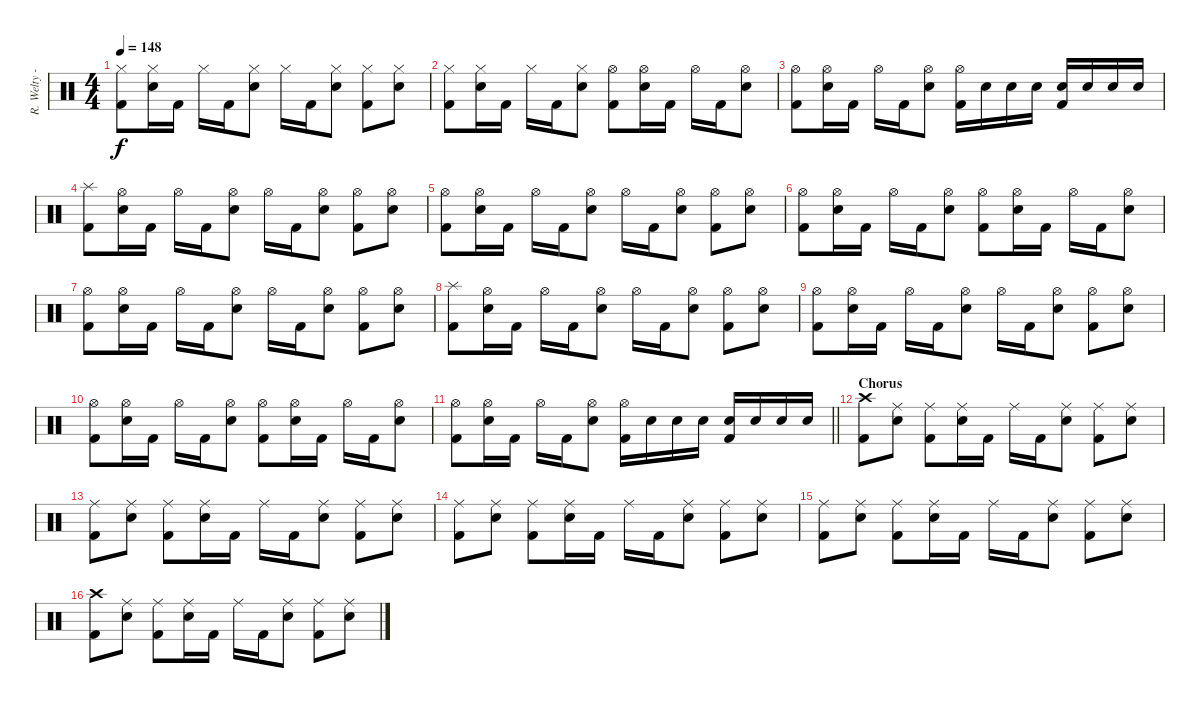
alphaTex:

\track ("R. Welty - Drums" "R. Welty -") {instrument percussion}
\staff {score}
\articulation defaults
\ts (4 4)
\tempo 148
\clef neutral
\ks c
("Hi-Hat (closed)" "Kick (hit) 2").8{dy f} ("Hi-Hat (closed)" "Snare (hit) 2").16 "Kick (hit) 2".16 "Hi-Hat (closed)".16 "Kick (hit) 2".16 ("Hi-Hat (closed)" "Snare (hit) 2").8 "Hi-Hat (closed)".16 "Kick (hit) 2".16 ("Hi-Hat (closed)" "Snare (hit) 2").8 ("Hi-Hat (closed)" "Kick (hit) 2").8 ("Hi-Hat (closed)" "Snare (hit) 2").8 |
("Hi-Hat (closed)" "Kick (hit) 2").8 ("Hi-Hat (closed)" "Snare (hit) 2").16 "Kick (hit) 2".16 "Hi-Hat (closed)".16 "Kick (hit) 2".16 ("Hi-Hat (closed)" "Snare (hit) 2").8 ("Hi-Hat (open)" "Kick (hit) 2").8 ("Hi-Hat (open)" "Snare (hit) 2").16 "Kick (hit) 2".16 "Hi-Hat (open)".16 "Kick (hit) 2".16 ("Hi-Hat (open)" "Snare (hit) 2").8 |
("Hi-Hat (open)" "Kick (hit) 2").8 ("Hi-Hat (open)" "Snare (hit) 2").16 "Kick (hit) 2".16 "Hi-Hat (open)".16 "Kick (hit) 2".16 ("Hi-Hat (open)" "Snare (hit) 2").8 ("Hi-Hat (open)" "Kick (hit) 2").16 "Snare (hit) 2".16 "Snare (hit) 2".16 "Snare (hit) 2".16 ("Snare (hit) 2" "Kick (hit) 2").16 "Snare (hit) 2".16 "Snare (hit) 2".16 "Snare (hit) 2".16 |
("Splash (hit)" "Kick (hit) 2").8 ("Hi-Hat (open)" "Snare (hit) 2").16 "Kick (hit) 2".16 "Hi-Hat (open)".16 "Kick (hit) 2".16 ("Hi-Hat (open)" "Snare (hit) 2").8 "Hi-Hat (open)".16 "Kick (hit) 2".16 ("Hi-Hat (open)" "Snare (hit) 2").8 ("Hi-Hat (open)" "Kick (hit) 2").8 ("Hi-Hat (open)" "Snare (hit) 2").8 |
("Hi-Hat (open)" "Kick (hit) 2").8 ("Hi-Hat (open)" "Snare (hit) 2").16 "Kick (hit) 2".16 "Hi-Hat (open)".16 "Kick (hit) 2".16 ("Hi-Hat (open)" "Snare (hit) 2").8 "Hi-Hat (open)".16 "Kick (hit) 2".16 ("Hi-Hat (open)" "Snare (hit) 2").8 ("Hi-Hat (open)" "Kick (hit) 2").8 ("Hi-Hat (open)" "Snare (hit) 2").8 |
("Hi-Hat (open)" "Kick (hit) 2").8 ("Hi-Hat (open)" "Snare (hit) 2").16 "Kick (hit) 2".16 "Hi-Hat (open)".16 "Kick (hit) 2".16 ("Hi-Hat (open)" "Snare (hit) 2").8 ("Hi-Hat (open)" "Kick (hit) 2").8 ("Hi-Hat (open)" "Snare (hit) 2").16 "Kick (hit) 2".16 "Hi-Hat (open)".16 "Kick (hit) 2".16 ("Hi-Hat (open)" "Snare (hit) 2").8 |
("Hi-Hat (open)" "Kick (hit) 2").8 ("Hi-Hat (open)" "Snare (hit) 2").16 "Kick (hit) 2".16 "Hi-Hat (open)".16 "Kick (hit) 2".16 ("Hi-Hat (open)" "Snare (hit) 2").8 "Hi-Hat (open)".16 "Kick (hit) 2".16 ("Hi-Hat (open)" "Snare (hit) 2").8 ("Hi-Hat (open)" "Kick (hit) 2").8 ("Hi-Hat (open)" "Snare (hit) 2").8 |
("Splash (hit)" "Kick (hit) 2").8 ("Hi-Hat (open)" "Snare (hit) 2").16 "Kick (hit) 2".16 "Hi-Hat (open)".16 "Kick (hit) 2".16 ("Hi-Hat (open)" "Snare (hit) 2").8 "Hi-Hat (open)".16 "Kick (hit) 2".16 ("Hi-Hat (open)" "Snare (hit) 2").8 ("Hi-Hat (open)" "Kick (hit) 2").8 ("Hi-Hat (open)" "Snare (hit) 2").8 |
("Hi-Hat (open)" "Kick (hit) 2").8 ("Hi-Hat (open)" "Snare (hit) 2").16 "Kick (hit) 2".16 "Hi-Hat (open)".16 "Kick (hit) 2".16 ("Hi-Hat (open)" "Snare (hit) 2").8 "Hi-Hat (open)".16 "Kick (hit) 2".16 ("Hi-Hat (open)" "Snare (hit) 2").8 ("Hi-Hat (open)" "Kick (hit) 2").8 ("Hi-Hat (open)" "Snare (hit) 2").8 |
("Hi-Hat (open)" "Kick (hit) 2").8 ("Hi-Hat (open)" "Snare (hit) 2").16 "Kick (hit) 2".16 "Hi-Hat (open)".16 "Kick (hit) 2".16 ("Hi-Hat (open)" "Snare (hit) 2").8 ("Hi-Hat (open)" "Kick (hit) 2").8 ("Hi-Hat (open)" "Snare (hit) 2").16 "Kick (hit) 2".16 "Hi-Hat (open)".16 "Kick (hit) 2".16 ("Hi-Hat (open)" "Snare (hit) 2").8 |
\barLineRight lightlight
("Hi-Hat (open)" "Kick (hit) 2").8 ("Hi-Hat (open)" "Snare (hit) 2").16 "Kick (hit) 2".16 "Hi-Hat (open)".16 "Kick (hit) 2".16 ("Hi-Hat (open)" "Snare (hit) 2").8 ("Hi-Hat (open)" "Kick (hit) 2").16 "Snare (hit) 2".16 "Snare (hit) 2".16 "Snare (hit) 2".16 ("Snare (hit) 2" "Kick (hit) 2").16 "Snare (hit) 2".16 "Snare (hit) 2".16 "Snare (hit) 2".16 |
\section ("" "Chorus")
("Crash high (hit)" "Kick (hit) 2").8 ("Ride (middle)" "Snare (hit) 2").8 ("Ride (middle)" "Kick (hit) 2").8 ("Ride (middle)" "Snare (hit) 2").16 "Kick (hit) 2".16 "Ride (middle)".16 "Kick (hit) 2".16 ("Ride (middle)" "Snare (hit) 2").8 ("Ride (middle)" "Kick (hit) 2").8 ("Ride (middle)" "Snare (hit) 2").8 |
("Ride (middle)" "Kick (hit) 2").8 ("Ride (middle)" "Snare (hit) 2").8 ("Ride (middle)" "Kick (hit) 2").8 ("Ride (middle)" "Snare (hit) 2").16 "Kick (hit) 2".16 "Ride (middle)".16 "Kick (hit) 2".16 ("Ride (middle)" "Snare (hit) 2").8 ("Ride (middle)" "Kick (hit) 2").8 ("Ride (middle)" "Snare (hit) 2").8 |
("Ride (middle)" "Kick (hit) 2").8 ("Ride (middle)" "Snare (hit) 2").8 ("Ride (middle)" "Kick (hit) 2").8 ("Ride (middle)" "Snare (hit) 2").16 "Kick (hit) 2".16 "Ride (middle)".16 "Kick (hit) 2".16 ("Ride (middle)" "Snare (hit) 2").8 ("Ride (middle)" "Kick (hit) 2").8 ("Ride (middle)" "Snare (hit) 2").8 |
("Ride (middle)" "Kick (hit) 2").8 ("Ride (middle)" "Snare (hit) 2").8 ("Ride (middle)" "Kick (hit) 2").8 ("Ride (middle)" "Snare (hit) 2").16 "Kick (hit) 2".16 "Ride (middle)".16 "Kick (hit) 2".16 ("Ride (middle)" "Snare (hit) 2").8 ("Ride (middle)" "Kick (hit) 2").8 ("Ride (middle)" "Snare (hit) 2").8 |
("Crash high (hit)" "Kick (hit) 2").8 ("Ride (middle)" "Snare (hit) 2").8 ("Ride (middle)" "Kick (hit) 2").8 ("Ride (middle)" "Snare (hit) 2").16 "Kick (hit) 2".16 "Ride (middle)".16 "Kick (hit) 2".16 ("Ride (middle)" "Snare (hit) 2").8 ("Ride (middle)" "Kick (hit) 2").8 ("Ride (middle)" "Snare (hit) 2").8
